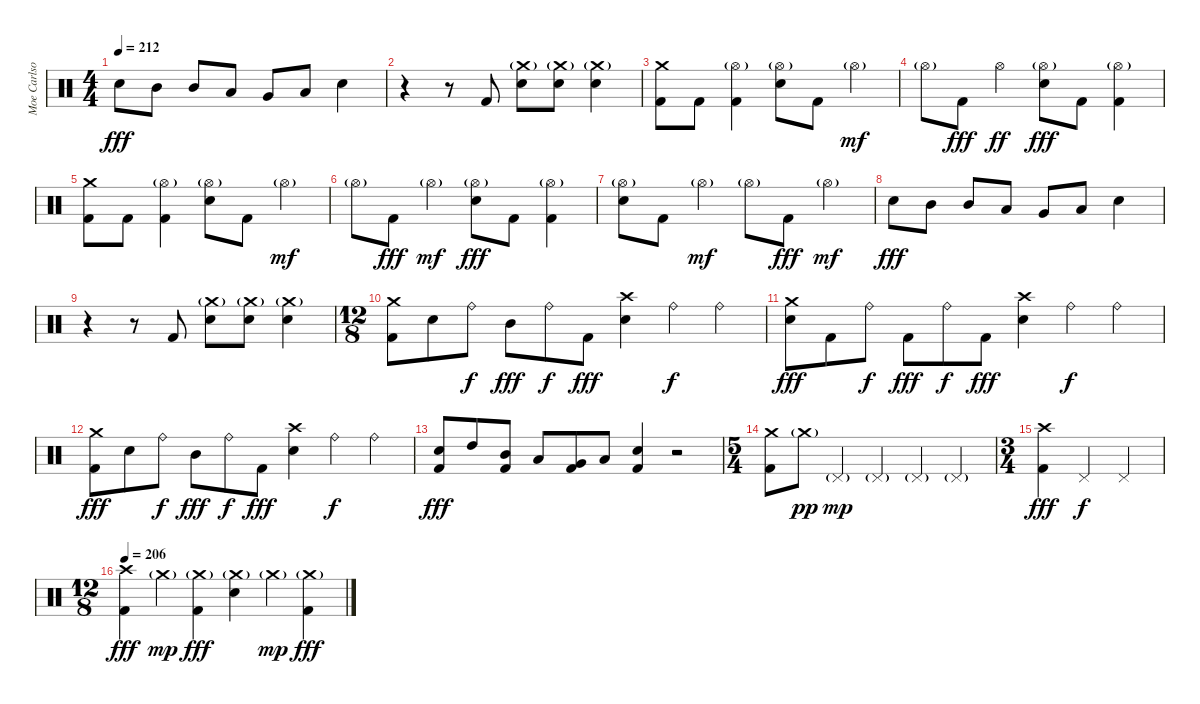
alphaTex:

\track ("Moe Carlson" "Moe Carlso") {instrument percussion}
\staff {score}
\articulation defaults
\ts (4 4)
\tempo 212
\clef neutral
\ks c "Electric Snare (hit)".8{dy fff} "Mid Tom (hit)".8 "Mid Tom (hit)".8 "Low Tom (hit)".8 "Very Low Tom (hit)".8 "Low Floor Tom (hit)".8 "Electric Snare (hit)".4
|
r.4 r.8 "Kick (hit) 2".8 ("Crash medium (hit)"{g} "Electric Snare (hit)").8 ("Crash medium (hit)"{g} "Electric Snare (hit)").8 ("Crash medium (hit)"{g} "Electric Snare (hit)").4 |
("Crash medium (hit)" "Kick (hit) 2").8 "Kick (hit) 2".8 ("Hi-Hat (open)"{g} "Kick (hit) 2").4 ("Hi-Hat (open)"{g} "Electric Snare (hit)").8 "Kick (hit) 2".8 "Hi-Hat (open)"{g}.4{dy mf} |
"Hi-Hat (open)"{g}.8 "Kick (hit) 2".8{dy fff} "Hi-Hat (open)".4{dy ff} ("Hi-Hat (open)"{g} "Electric Snare (hit)").8{dy fff} "Kick (hit) 2".8 ("Hi-Hat (open)"{g} "Kick (hit) 2").4 |
("Crash medium (hit)" "Kick (hit) 2").8 "Kick (hit) 2".8 ("Hi-Hat (open)"{g} "Kick (hit) 2").4 ("Hi-Hat (open)"{g} "Electric Snare (hit)").8 "Kick (hit) 2".8 "Hi-Hat (open)"{g}.4{dy mf} |
"Hi-Hat (open)"{g}.8 "Kick (hit) 2".8{dy fff} "Hi-Hat (open)"{g}.4{dy mf} ("Hi-Hat (open)"{g} "Electric Snare (hit)").8{dy fff} "Kick (hit) 2".8 ("Hi-Hat (open)"{g} "Kick (hit) 2").4 |
("Hi-Hat (open)"{g} "Electric Snare (hit)").8 "Kick (hit) 2".8 "Hi-Hat (open)"{g}.4{dy mf} "Hi-Hat (open)"{g}.8 "Kick (hit) 2".8{dy fff} "Hi-Hat (open)"{g}.4{dy mf} |
"Electric Snare (hit)".8{dy fff} "Mid Tom (hit)".8 "Mid Tom (hit)".8 "Low Tom (hit)".8 "Very Low Tom (hit)".8 "Low Floor Tom (hit)".8 "Electric Snare (hit)".4 |
r.4 r.8 "Kick (hit) 2".8 ("Crash medium (hit)"{g} "Electric Snare (hit)").8 ("Crash medium (hit)"{g} "Electric Snare (hit)").8 ("Crash medium (hit)"{g} "Electric Snare (hit)").4 |
\ts (12 8)
("Crash medium (hit)" "Kick (hit) 2").8 "Electric Snare (hit)".8 "Ride (bell)".8{dy f} "Mid Tom (hit)".8{dy fff} "Ride (bell)".8{dy f} "Kick (hit) 2".8{dy fff} ("Crash high (hit)" "Electric Snare (hit)").4 "Ride (bell)".4{dy f} "Ride (bell)".4 |
("Crash medium (hit)" "Electric Snare (hit)").8{dy fff} "Kick (hit) 2".8 "Ride (bell)".8{dy f} "Kick (hit) 2".8{dy fff} "Ride (bell)".8{dy f} "Kick (hit) 2".8{dy fff} ("Crash high (hit)" "Electric Snare (hit)").4 "Ride (bell)".4{dy f} "Ride (bell)".4 |
("Crash medium (hit)" "Kick (hit) 2").8{dy fff} "Electric Snare (hit)".8 "Ride (bell)".8{dy f} "Mid Tom (hit)".8{dy fff} "Ride (bell)".8{dy f} "Kick (hit) 2".8{dy fff} ("Crash high (hit)" "Electric Snare (hit)").4 "Ride (bell)".4{dy f} "Ride (bell)".4 |
("Electric Snare (hit)" "Kick (hit) 2").8{dy fff} "High Tom (hit)".8 ("Mid Tom (hit)" "Kick (hit) 2").8 "Low Tom (hit)".8 ("Very Low Tom (hit)" "Kick (hit) 2").8 "Low Floor Tom (hit)".8 ("Electric Snare (hit)" "Kick (hit) 2").4 r.2 |
\ts (5 4)
("Crash medium (hit)" "Kick (hit) 2").8 "Crash medium (hit)"{g}.8{dy pp} "Pedal Hi-Hat (hit)"{g}.4{dy mp} "Pedal Hi-Hat (hit)"{g}.4 "Pedal Hi-Hat (hit)"{g}.4 "Pedal Hi-Hat (hit)"{g}.4 |
\ts (3 4)
("Crash high (hit)" "Kick (hit) 2").4{dy fff} "Pedal Hi-Hat (hit)".4{dy f} "Pedal Hi-Hat (hit)".4 |
\ts (12 8)
\tempo 206
("Crash high (hit)" "Kick (hit) 2").4{dy fff} "Crash medium (hit)"{g}.4{dy mp} ("Crash medium (hit)"{g} "Kick (hit) 2").4{dy fff} ("Crash medium (hit)"{g} "Electric Snare (hit)").4 "Crash medium (hit)"{g}.4{dy mp} ("Crash medium (hit)"{g} "Kick (hit) 2").4{dy fff}
